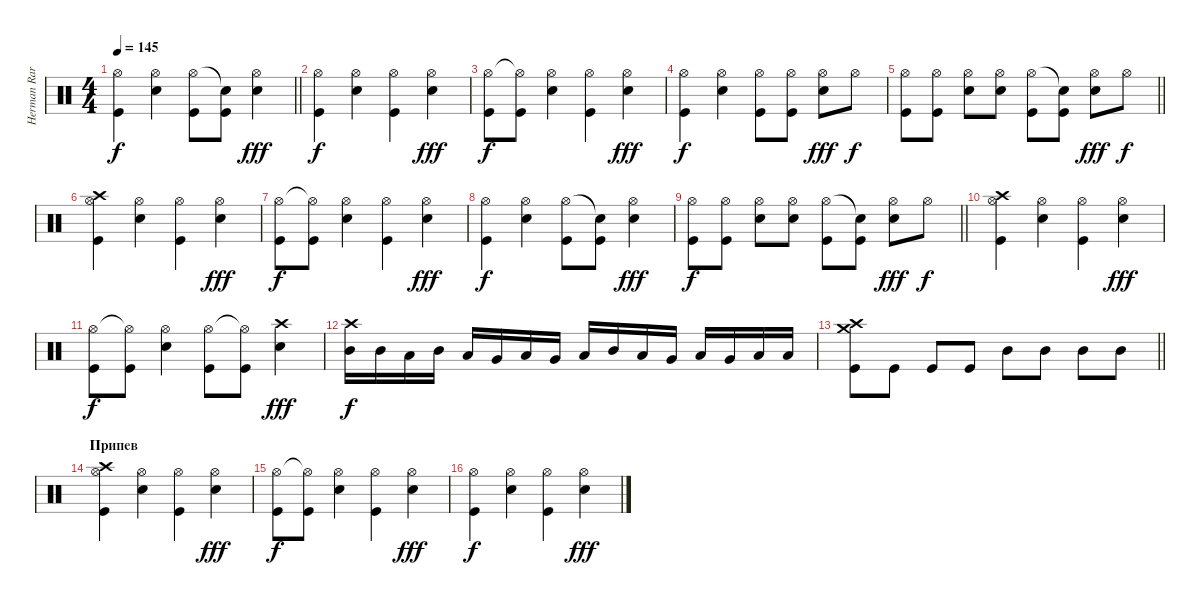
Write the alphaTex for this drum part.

\track ("Herman Rarebell" "Herman Rar") {instrument percussion}
\staff {score}
\articulation defaults
\ts (4 4)
\tempo 145
\clef neutral
\barLineRight lightlight
\ks c
("Hi-Hat (open)" "Kick (hit)").4{dy f} ("Hi-Hat (open)" "Snare (hit) 2").4 ("Hi-Hat (open)" "Kick (hit)").8 ("Snare (hit)"{t} "Kick (hit)").8 ("Hi-Hat (open)" "Snare (hit) 2").4{dy fff} |
("Hi-Hat (open)" "Kick (hit)").4{dy f} ("Hi-Hat (open)" "Snare (hit) 2").4 ("Hi-Hat (open)" "Kick (hit)").4 ("Hi-Hat (open)" "Snare (hit) 2").4{dy fff} |
("Hi-Hat (open)" "Kick (hit)").8{dy f} ("Hi-Hat (open)"{t} "Kick (hit)").8 ("Hi-Hat (open)" "Snare (hit) 2").4 ("Hi-Hat (open)" "Kick (hit)").4 ("Hi-Hat (open)" "Snare (hit) 2").4{dy fff} |
("Hi-Hat (open)" "Kick (hit)").4{dy f} ("Hi-Hat (open)" "Snare (hit) 2").4 ("Hi-Hat (open)" "Kick (hit)").8 ("Hi-Hat (open)" "Kick (hit)").8 ("Hi-Hat (open)" "Snare (hit) 2").8{dy fff} "Hi-Hat (open)".8{dy f} |
\barLineRight lightlight
("Hi-Hat (open)" "Kick (hit)").8 ("Hi-Hat (open)" "Kick (hit)").8 ("Hi-Hat (open)" "Snare (hit) 2").8 ("Hi-Hat (open)" "Snare (hit) 2").8 ("Hi-Hat (open)" "Kick (hit)").8 ("Snare (hit)"{t} "Kick (hit)").8 ("Hi-Hat (open)" "Snare (hit) 2").8{dy fff} "Hi-Hat (open)".8{dy f} |
("Hi-Hat (open)" "Crash high (hit)" "Kick (hit)").4 ("Hi-Hat (open)" "Snare (hit) 2").4 ("Hi-Hat (open)" "Kick (hit)").4 ("Hi-Hat (open)" "Snare (hit) 2").4{dy fff} |
("Hi-Hat (open)" "Kick (hit)").8{dy f} ("Hi-Hat (open)"{t} "Kick (hit)").8 ("Hi-Hat (open)" "Snare (hit) 2").4 ("Hi-Hat (open)" "Kick (hit)").4 ("Hi-Hat (open)" "Snare (hit) 2").4{dy fff} |
("Hi-Hat (open)" "Kick (hit)").4{dy f} ("Hi-Hat (open)" "Snare (hit) 2").4 ("Hi-Hat (open)" "Kick (hit)").8 ("Snare (hit)"{t} "Kick (hit)").8 ("Hi-Hat (open)" "Snare (hit) 2").4{dy fff} |
\barLineRight lightlight
("Hi-Hat (open)" "Kick (hit)").8{dy f} ("Hi-Hat (open)" "Kick (hit)").8 ("Hi-Hat (open)" "Snare (hit) 2").8 ("Hi-Hat (open)" "Snare (hit) 2").8 ("Hi-Hat (open)" "Kick (hit)").8 ("Snare (hit)"{t} "Kick (hit)").8 ("Hi-Hat (open)" "Snare (hit) 2").8{dy fff} "Hi-Hat (open)".8{dy f} |
("Hi-Hat (open)" "Crash high (hit)" "Kick (hit)").4 ("Hi-Hat (open)" "Snare (hit) 2").4 ("Hi-Hat (open)" "Kick (hit)").4 ("Hi-Hat (open)" "Snare (hit) 2").4{dy fff} |
("Hi-Hat (open)" "Kick (hit)").8{dy f} ("Hi-Hat (open)"{t} "Kick (hit)").8 ("Hi-Hat (open)" "Snare (hit) 2").4 ("Hi-Hat (open)" "Kick (hit)").8 ("Hi-Hat (open)"{t} "Kick (hit)").8 ("Crash high (hit)" "Snare (hit) 2").4{dy fff} |
("Crash high (hit)" "Mid Tom (hit)").16{dy f} "Mid Tom (hit)".16 "Low Tom (hit)".16 "Mid Tom (hit)".16 "Low Tom (hit)".16 "Very Low Tom (hit)".16 "Low Tom (hit)".16 "Very Low Tom (hit)".16 "Low Floor Tom (hit)".16 "Mid Tom (hit)".16 "Low Tom (hit)".16 "Very Low Tom (hit)".16 "Low Tom (hit)".16 "Very Low Tom (hit)".16 "Low Floor Tom (hit)".16 "Low Floor Tom (hit)".16 |
\barLineRight lightlight
("Crash medium (hit)" "Crash high (hit)" "Kick (hit)").8 "Kick (hit)".8 "Kick (hit)".8 "Kick (hit)".8 "Mid Tom (hit)".8 "Mid Tom (hit)".8 "Mid Tom (hit)".8 "Mid Tom (hit)".8 |
\section ("" "Припев")
("Hi-Hat (open)" "Crash high (hit)" "Kick (hit)").4 ("Hi-Hat (open)" "Snare (hit) 2").4 ("Hi-Hat (open)" "Kick (hit)").4 ("Hi-Hat (open)" "Snare (hit) 2").4{dy fff} |
("Hi-Hat (open)" "Kick (hit)").8{dy f} ("Hi-Hat (open)"{t} "Kick (hit)").8 ("Hi-Hat (open)" "Snare (hit) 2").4 ("Hi-Hat (open)" "Kick (hit)").4 ("Hi-Hat (open)" "Snare (hit) 2").4{dy fff} |
("Hi-Hat (open)" "Kick (hit)").4{dy f} ("Hi-Hat (open)" "Snare (hit) 2").4 ("Hi-Hat (open)" "Kick (hit)").4 ("Hi-Hat (open)" "Snare (hit) 2").4{dy fff}
